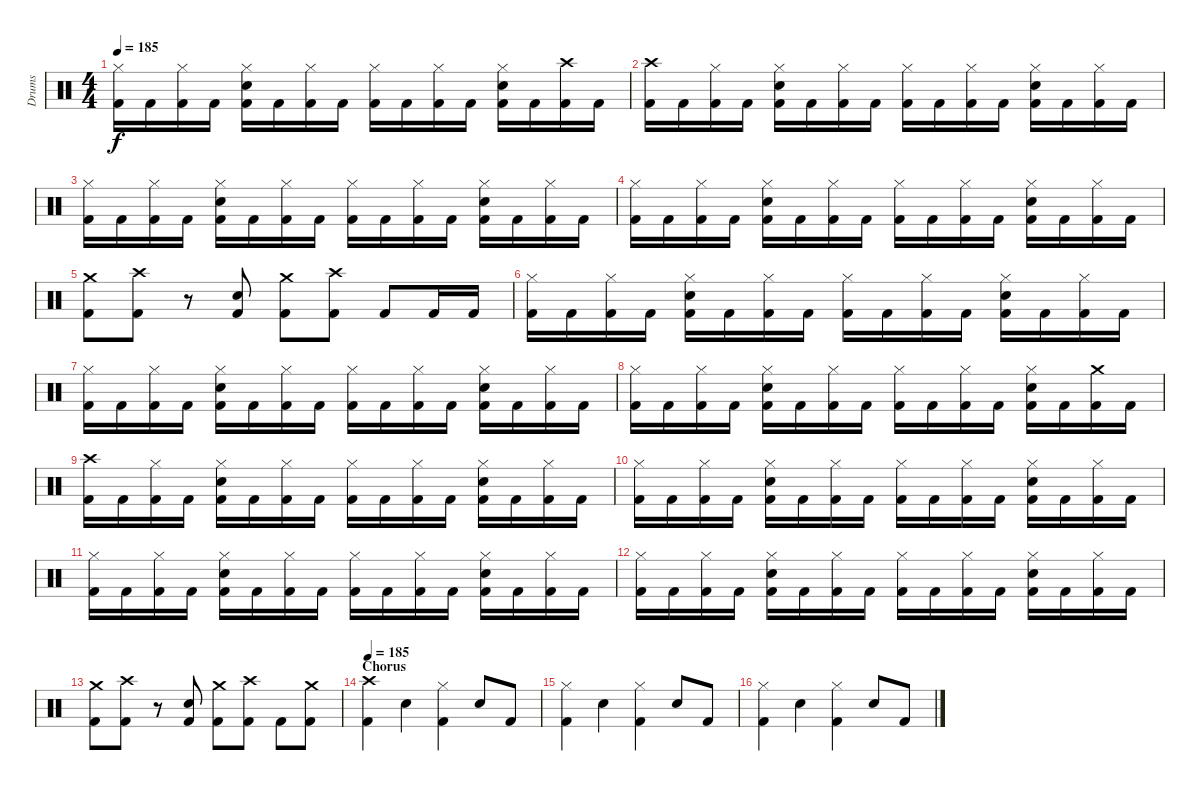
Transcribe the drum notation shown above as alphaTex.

\track ("Drums" "Drums") {instrument percussion}
\staff {score}
\articulation defaults
\ts (4 4)
\tempo 185
\clef neutral
\ks c
("Hi-Hat (closed)" "Kick (hit) 2").16{dy f} "Kick (hit) 2".16 ("Hi-Hat (closed)" "Kick (hit) 2").16 "Kick (hit) 2".16 ("Hi-Hat (closed)" "Electric Snare (hit)" "Kick (hit) 2").16 "Kick (hit) 2".16 ("Hi-Hat (closed)" "Kick (hit) 2").16 "Kick (hit) 2".16 ("Hi-Hat (closed)" "Kick (hit) 2").16 "Kick (hit) 2".16 ("Hi-Hat (closed)" "Kick (hit) 2").16 "Kick (hit) 2".16 ("Hi-Hat (closed)" "Electric Snare (hit)" "Kick (hit) 2").16 "Kick (hit) 2".16 ("Crash high (hit)" "Kick (hit) 2").16 "Kick (hit) 2".16 |
("Crash high (hit)" "Kick (hit) 2").16 "Kick (hit) 2".16 ("Hi-Hat (closed)" "Kick (hit) 2").16 "Kick (hit) 2".16 ("Hi-Hat (closed)" "Electric Snare (hit)" "Kick (hit) 2").16 "Kick (hit) 2".16 ("Hi-Hat (closed)" "Kick (hit) 2").16 "Kick (hit) 2".16 ("Hi-Hat (closed)" "Kick (hit) 2").16 "Kick (hit) 2".16 ("Hi-Hat (closed)" "Kick (hit) 2").16 "Kick (hit) 2".16 ("Hi-Hat (closed)" "Electric Snare (hit)" "Kick (hit) 2").16 "Kick (hit) 2".16 ("Hi-Hat (closed)" "Kick (hit) 2").16 "Kick (hit) 2".16 |
("Hi-Hat (closed)" "Kick (hit) 2").16 "Kick (hit) 2".16 ("Hi-Hat (closed)" "Kick (hit) 2").16 "Kick (hit) 2".16 ("Hi-Hat (closed)" "Electric Snare (hit)" "Kick (hit) 2").16 "Kick (hit) 2".16 ("Hi-Hat (closed)" "Kick (hit) 2").16 "Kick (hit) 2".16 ("Hi-Hat (closed)" "Kick (hit) 2").16 "Kick (hit) 2".16 ("Hi-Hat (closed)" "Kick (hit) 2").16 "Kick (hit) 2".16 ("Hi-Hat (closed)" "Electric Snare (hit)" "Kick (hit) 2").16 "Kick (hit) 2".16 ("Hi-Hat (closed)" "Kick (hit) 2").16 "Kick (hit) 2".16 |
("Hi-Hat (closed)" "Kick (hit) 2").16 "Kick (hit) 2".16 ("Hi-Hat (closed)" "Kick (hit) 2").16 "Kick (hit) 2".16 ("Hi-Hat (closed)" "Electric Snare (hit)" "Kick (hit) 2").16 "Kick (hit) 2".16 ("Hi-Hat (closed)" "Kick (hit) 2").16 "Kick (hit) 2".16 ("Hi-Hat (closed)" "Kick (hit) 2").16 "Kick (hit) 2".16 ("Hi-Hat (closed)" "Kick (hit) 2").16 "Kick (hit) 2".16 ("Hi-Hat (closed)" "Electric Snare (hit)" "Kick (hit) 2").16 "Kick (hit) 2".16 ("Hi-Hat (closed)" "Kick (hit) 2").16 "Kick (hit) 2".16 |
("Crash medium (hit)" "Kick (hit) 2").8 ("Crash high (hit)" "Kick (hit) 2").8 r.8 ("Electric Snare (hit)" "Kick (hit) 2").8 ("Crash medium (hit)" "Kick (hit) 2").8 ("Crash high (hit)" "Kick (hit) 2").8 "Kick (hit) 2".8 "Kick (hit) 2".16 "Kick (hit) 2".16 |
("Hi-Hat (closed)" "Kick (hit) 2").16 "Kick (hit) 2".16 ("Hi-Hat (closed)" "Kick (hit) 2").16 "Kick (hit) 2".16 ("Hi-Hat (closed)" "Electric Snare (hit)" "Kick (hit) 2").16 "Kick (hit) 2".16 ("Hi-Hat (closed)" "Kick (hit) 2").16 "Kick (hit) 2".16 ("Hi-Hat (closed)" "Kick (hit) 2").16 "Kick (hit) 2".16 ("Hi-Hat (closed)" "Kick (hit) 2").16 "Kick (hit) 2".16 ("Hi-Hat (closed)" "Electric Snare (hit)" "Kick (hit) 2").16 "Kick (hit) 2".16 ("Hi-Hat (closed)" "Kick (hit) 2").16 "Kick (hit) 2".16 |
("Hi-Hat (closed)" "Kick (hit) 2").16 "Kick (hit) 2".16 ("Hi-Hat (closed)" "Kick (hit) 2").16 "Kick (hit) 2".16 ("Hi-Hat (closed)" "Electric Snare (hit)" "Kick (hit) 2").16 "Kick (hit) 2".16 ("Hi-Hat (closed)" "Kick (hit) 2").16 "Kick (hit) 2".16 ("Hi-Hat (closed)" "Kick (hit) 2").16 "Kick (hit) 2".16 ("Hi-Hat (closed)" "Kick (hit) 2").16 "Kick (hit) 2".16 ("Hi-Hat (closed)" "Electric Snare (hit)" "Kick (hit) 2").16 "Kick (hit) 2".16 ("Hi-Hat (closed)" "Kick (hit) 2").16 "Kick (hit) 2".16 |
("Hi-Hat (closed)" "Kick (hit) 2").16 "Kick (hit) 2".16 ("Hi-Hat (closed)" "Kick (hit) 2").16 "Kick (hit) 2".16 ("Hi-Hat (closed)" "Electric Snare (hit)" "Kick (hit) 2").16 "Kick (hit) 2".16 ("Hi-Hat (closed)" "Kick (hit) 2").16 "Kick (hit) 2".16 ("Hi-Hat (closed)" "Kick (hit) 2").16 "Kick (hit) 2".16 ("Hi-Hat (closed)" "Kick (hit) 2").16 "Kick (hit) 2".16 ("Hi-Hat (closed)" "Electric Snare (hit)" "Kick (hit) 2").16 "Kick (hit) 2".16 ("Crash medium (hit)" "Kick (hit) 2").16 "Kick (hit) 2".16 |
("Crash high (hit)" "Kick (hit) 2").16 "Kick (hit) 2".16 ("Hi-Hat (closed)" "Kick (hit) 2").16 "Kick (hit) 2".16 ("Hi-Hat (closed)" "Electric Snare (hit)" "Kick (hit) 2").16 "Kick (hit) 2".16 ("Hi-Hat (closed)" "Kick (hit) 2").16 "Kick (hit) 2".16 ("Hi-Hat (closed)" "Kick (hit) 2").16 "Kick (hit) 2".16 ("Hi-Hat (closed)" "Kick (hit) 2").16 "Kick (hit) 2".16 ("Hi-Hat (closed)" "Electric Snare (hit)" "Kick (hit) 2").16 "Kick (hit) 2".16 ("Hi-Hat (closed)" "Kick (hit) 2").16 "Kick (hit) 2".16 |
("Hi-Hat (closed)" "Kick (hit) 2").16 "Kick (hit) 2".16 ("Hi-Hat (closed)" "Kick (hit) 2").16 "Kick (hit) 2".16 ("Hi-Hat (closed)" "Electric Snare (hit)" "Kick (hit) 2").16 "Kick (hit) 2".16 ("Hi-Hat (closed)" "Kick (hit) 2").16 "Kick (hit) 2".16 ("Hi-Hat (closed)" "Kick (hit) 2").16 "Kick (hit) 2".16 ("Hi-Hat (closed)" "Kick (hit) 2").16 "Kick (hit) 2".16 ("Hi-Hat (closed)" "Electric Snare (hit)" "Kick (hit) 2").16 "Kick (hit) 2".16 ("Hi-Hat (closed)" "Kick (hit) 2").16 "Kick (hit) 2".16 |
("Hi-Hat (closed)" "Kick (hit) 2").16 "Kick (hit) 2".16 ("Hi-Hat (closed)" "Kick (hit) 2").16 "Kick (hit) 2".16 ("Hi-Hat (closed)" "Electric Snare (hit)" "Kick (hit) 2").16 "Kick (hit) 2".16 ("Hi-Hat (closed)" "Kick (hit) 2").16 "Kick (hit) 2".16 ("Hi-Hat (closed)" "Kick (hit) 2").16 "Kick (hit) 2".16 ("Hi-Hat (closed)" "Kick (hit) 2").16 "Kick (hit) 2".16 ("Hi-Hat (closed)" "Electric Snare (hit)" "Kick (hit) 2").16 "Kick (hit) 2".16 ("Hi-Hat (closed)" "Kick (hit) 2").16 "Kick (hit) 2".16 |
("Hi-Hat (closed)" "Kick (hit) 2").16 "Kick (hit) 2".16 ("Hi-Hat (closed)" "Kick (hit) 2").16 "Kick (hit) 2".16 ("Hi-Hat (closed)" "Electric Snare (hit)" "Kick (hit) 2").16 "Kick (hit) 2".16 ("Hi-Hat (closed)" "Kick (hit) 2").16 "Kick (hit) 2".16 ("Hi-Hat (closed)" "Kick (hit) 2").16 "Kick (hit) 2".16 ("Hi-Hat (closed)" "Kick (hit) 2").16 "Kick (hit) 2".16 ("Hi-Hat (closed)" "Electric Snare (hit)" "Kick (hit) 2").16 "Kick (hit) 2".16 ("Hi-Hat (closed)" "Kick (hit) 2").16 "Kick (hit) 2".16 |
("Crash medium (hit)" "Kick (hit) 2").8 ("Crash high (hit)" "Kick (hit) 2").8 r.8 ("Electric Snare (hit)" "Kick (hit) 2").8 ("Crash medium (hit)" "Kick (hit) 2").8 ("Crash high (hit)" "Kick (hit) 2").8 "Kick (hit) 2".8 ("Crash medium (hit)" "Kick (hit) 2").8 |
\section ("" "Chorus")
\tempo 185
("Crash high (hit)" "Kick (hit) 2").4 "Electric Snare (hit)".4 ("Hi-Hat (closed)" "Kick (hit) 2").4 "Electric Snare (hit)".8 "Kick (hit) 2".8 |
("Hi-Hat (closed)" "Kick (hit) 2").4 "Electric Snare (hit)".4 ("Hi-Hat (closed)" "Kick (hit) 2").4 "Electric Snare (hit)".8 "Kick (hit) 2".8 |
("Hi-Hat (closed)" "Kick (hit) 2").4 "Electric Snare (hit)".4 ("Hi-Hat (closed)" "Kick (hit) 2").4 "Electric Snare (hit)".8 "Kick (hit) 2".8
